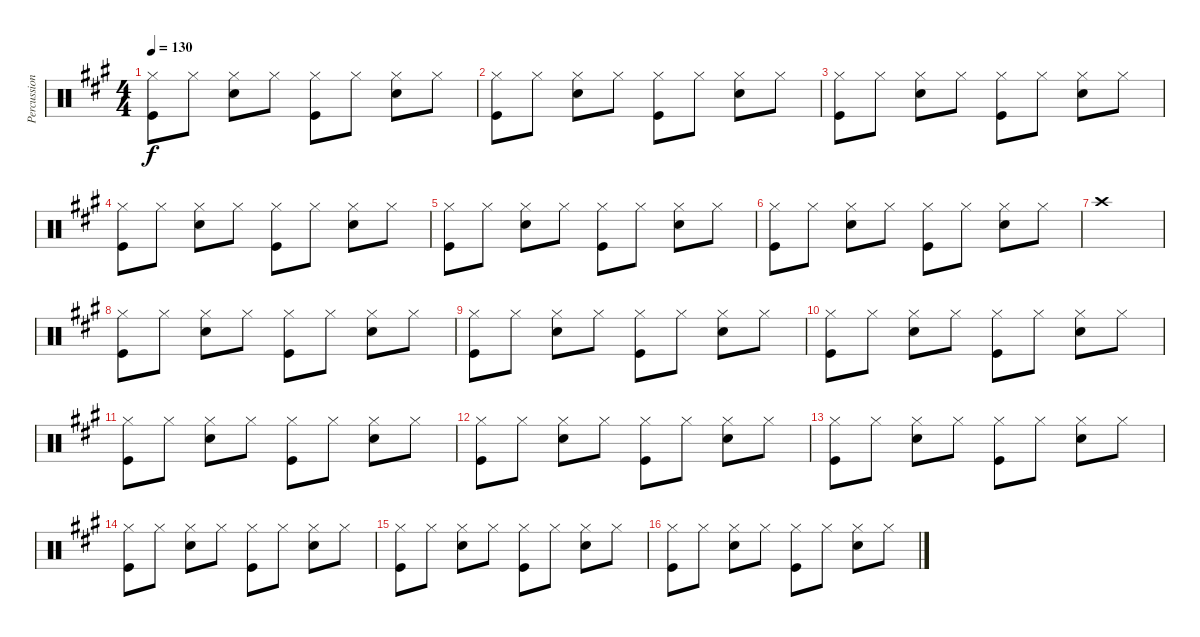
\track ("Percussion" "Percussion") {instrument percussion}
\staff {score}
\articulation defaults
\ts (4 4)
\tempo 130
\clef neutral
\ks a
("Hi-Hat (closed)" "Kick (hit)").8{dy f} "Hi-Hat (closed)".8 ("Hi-Hat (closed)" "Snare (hit) 2").8 "Hi-Hat (closed)".8 ("Hi-Hat (closed)" "Kick (hit)").8 "Hi-Hat (closed)".8 ("Hi-Hat (closed)" "Snare (hit) 2").8 "Hi-Hat (closed)".8 |
("Hi-Hat (closed)" "Kick (hit)").8 "Hi-Hat (closed)".8 ("Hi-Hat (closed)" "Snare (hit) 2").8 "Hi-Hat (closed)".8 ("Hi-Hat (closed)" "Kick (hit)").8 "Hi-Hat (closed)".8 ("Hi-Hat (closed)" "Snare (hit) 2").8 "Hi-Hat (closed)".8 |
("Hi-Hat (closed)" "Kick (hit)").8 "Hi-Hat (closed)".8 ("Hi-Hat (closed)" "Snare (hit) 2").8 "Hi-Hat (closed)".8 ("Hi-Hat (closed)" "Kick (hit)").8 "Hi-Hat (closed)".8 ("Hi-Hat (closed)" "Snare (hit) 2").8 "Hi-Hat (closed)".8 |
("Hi-Hat (closed)" "Kick (hit)").8 "Hi-Hat (closed)".8 ("Hi-Hat (closed)" "Snare (hit) 2").8 "Hi-Hat (closed)".8 ("Hi-Hat (closed)" "Kick (hit)").8 "Hi-Hat (closed)".8 ("Hi-Hat (closed)" "Snare (hit) 2").8 "Hi-Hat (closed)".8 |
("Hi-Hat (closed)" "Kick (hit)").8 "Hi-Hat (closed)".8 ("Hi-Hat (closed)" "Snare (hit) 2").8 "Hi-Hat (closed)".8 ("Hi-Hat (closed)" "Kick (hit)").8 "Hi-Hat (closed)".8 ("Hi-Hat (closed)" "Snare (hit) 2").8 "Hi-Hat (closed)".8 |
("Hi-Hat (closed)" "Kick (hit)").8 "Hi-Hat (closed)".8 ("Hi-Hat (closed)" "Snare (hit) 2").8 "Hi-Hat (closed)".8 ("Hi-Hat (closed)" "Kick (hit)").8 "Hi-Hat (closed)".8 ("Hi-Hat (closed)" "Snare (hit) 2").8 "Hi-Hat (closed)".8 |
"Crash high (hit)".1 |
("Hi-Hat (closed)" "Kick (hit)").8 "Hi-Hat (closed)".8 ("Hi-Hat (closed)" "Snare (hit) 2").8 "Hi-Hat (closed)".8 ("Hi-Hat (closed)" "Kick (hit)").8 "Hi-Hat (closed)".8 ("Hi-Hat (closed)" "Snare (hit) 2").8 "Hi-Hat (closed)".8 |
("Hi-Hat (closed)" "Kick (hit)").8 "Hi-Hat (closed)".8 ("Hi-Hat (closed)" "Snare (hit) 2").8 "Hi-Hat (closed)".8 ("Hi-Hat (closed)" "Kick (hit)").8 "Hi-Hat (closed)".8 ("Hi-Hat (closed)" "Snare (hit) 2").8 "Hi-Hat (closed)".8 |
("Hi-Hat (closed)" "Kick (hit)").8 "Hi-Hat (closed)".8 ("Hi-Hat (closed)" "Snare (hit) 2").8 "Hi-Hat (closed)".8 ("Hi-Hat (closed)" "Kick (hit)").8 "Hi-Hat (closed)".8 ("Hi-Hat (closed)" "Snare (hit) 2").8 "Hi-Hat (closed)".8 |
("Hi-Hat (closed)" "Kick (hit)").8 "Hi-Hat (closed)".8 ("Hi-Hat (closed)" "Snare (hit) 2").8 "Hi-Hat (closed)".8 ("Hi-Hat (closed)" "Kick (hit)").8 "Hi-Hat (closed)".8 ("Hi-Hat (closed)" "Snare (hit) 2").8 "Hi-Hat (closed)".8 |
("Hi-Hat (closed)" "Kick (hit)").8 "Hi-Hat (closed)".8 ("Hi-Hat (closed)" "Snare (hit) 2").8 "Hi-Hat (closed)".8 ("Hi-Hat (closed)" "Kick (hit)").8 "Hi-Hat (closed)".8 ("Hi-Hat (closed)" "Snare (hit) 2").8 "Hi-Hat (closed)".8 |
("Hi-Hat (closed)" "Kick (hit)").8 "Hi-Hat (closed)".8 ("Hi-Hat (closed)" "Snare (hit) 2").8 "Hi-Hat (closed)".8 ("Hi-Hat (closed)" "Kick (hit)").8 "Hi-Hat (closed)".8 ("Hi-Hat (closed)" "Snare (hit) 2").8 "Hi-Hat (closed)".8 |
("Hi-Hat (closed)" "Kick (hit)").8 "Hi-Hat (closed)".8 ("Hi-Hat (closed)" "Snare (hit) 2").8 "Hi-Hat (closed)".8 ("Hi-Hat (closed)" "Kick (hit)").8 "Hi-Hat (closed)".8 ("Hi-Hat (closed)" "Snare (hit) 2").8 "Hi-Hat (closed)".8 |
("Hi-Hat (closed)" "Kick (hit)").8 "Hi-Hat (closed)".8 ("Hi-Hat (closed)" "Snare (hit) 2").8 "Hi-Hat (closed)".8 ("Hi-Hat (closed)" "Kick (hit)").8 "Hi-Hat (closed)".8 ("Hi-Hat (closed)" "Snare (hit) 2").8 "Hi-Hat (closed)".8 |
("Hi-Hat (closed)" "Kick (hit)").8 "Hi-Hat (closed)".8 ("Hi-Hat (closed)" "Snare (hit) 2").8 "Hi-Hat (closed)".8 ("Hi-Hat (closed)" "Kick (hit)").8 "Hi-Hat (closed)".8 ("Hi-Hat (closed)" "Snare (hit) 2").8 "Hi-Hat (closed)".8
